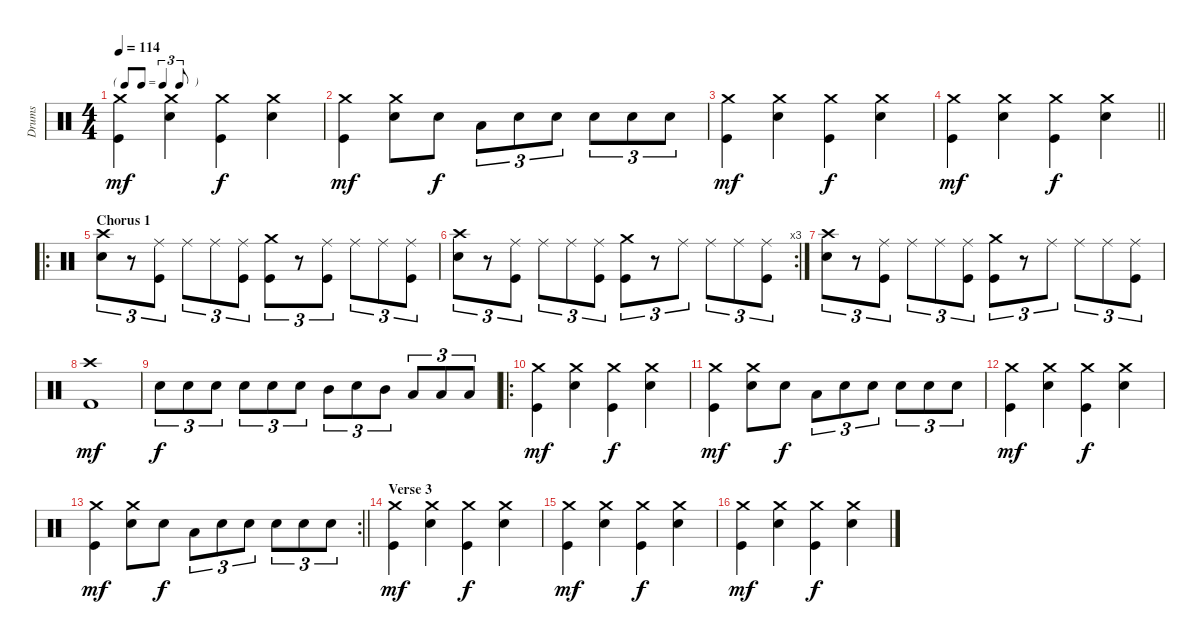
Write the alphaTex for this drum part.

\track ("Drums" "Drums") {instrument percussion}
\staff {score}
\articulation defaults
\ts (4 4)
\tf triplet8th
\tempo 114
\clef neutral
\ks c
("Crash medium (hit)" "Kick (hit)").4{dy mf beam merge} ("Crash medium (hit)" "Snare (hit) 2").4 ("Crash medium (hit)" "Kick (hit)").4{dy f beam merge} ("Crash medium (hit)" "Snare (hit) 2").4 |
("Crash medium (hit)" "Kick (hit)").4{dy mf beam merge} ("Crash medium (hit)" "Snare (hit) 2").8 "Snare (hit) 2".8{dy f} "Low Tom (hit)".8{tu (3 2)} "Snare (hit) 2".8{tu (3 2)} "Snare (hit) 2".8{tu (3 2)} "Snare (hit) 2".8{tu (3 2)} "Snare (hit) 2".8{tu (3 2)} "Snare (hit) 2".8{tu (3 2)} |
("Crash medium (hit)" "Kick (hit)").4{dy mf beam merge} ("Crash medium (hit)" "Snare (hit) 2").4 ("Crash medium (hit)" "Kick (hit)").4{dy f beam merge} ("Crash medium (hit)" "Snare (hit) 2").4 |
\barLineRight lightlight
("Crash medium (hit)" "Kick (hit)").4{dy mf beam merge} ("Crash medium (hit)" "Snare (hit) 2").4 ("Crash medium (hit)" "Kick (hit)").4{dy f beam merge} ("Crash medium (hit)" "Snare (hit) 2").4 |
\ro
\section ("" "Chorus 1")
("Crash high (hit)" "Snare (hit) 2").8{tu (3 2)} r.8{tu (3 2)} ("Ride (middle)" "Kick (hit)").8{tu (3 2)} "Ride (middle)".8{tu (3 2)} "Ride (middle)".8{tu (3 2)} ("Ride (middle)" "Kick (hit)").8{tu (3 2)} ("Crash medium (hit)" "Kick (hit)").8{tu (3 2)} r.8{tu (3 2)} ("Ride (middle)" "Kick (hit)").8{tu (3 2)} "Ride (middle)".8{tu (3 2)} "Ride (middle)".8{tu (3 2)} ("Ride (middle)" "Kick (hit)").8{tu (3 2)} |
\rc 3
("Crash high (hit)" "Snare (hit) 2").8{tu (3 2)} r.8{tu (3 2)} ("Ride (middle)" "Kick (hit)").8{tu (3 2)} "Ride (middle)".8{tu (3 2)} "Ride (middle)".8{tu (3 2)} ("Ride (middle)" "Kick (hit)").8{tu (3 2)} ("Crash medium (hit)" "Kick (hit)").8{tu (3 2)} r.8{tu (3 2)} "Ride (middle)".8{tu (3 2)} "Ride (middle)".8{tu (3 2)} "Ride (middle)".8{tu (3 2)} ("Ride (middle)" "Kick (hit)").8{tu (3 2)} |
("Crash high (hit)" "Snare (hit) 2").8{tu (3 2)} r.8{tu (3 2)} ("Ride (middle)" "Kick (hit)").8{tu (3 2)} "Ride (middle)".8{tu (3 2)} "Ride (middle)".8{tu (3 2)} ("Ride (middle)" "Kick (hit)").8{tu (3 2)} ("Crash medium (hit)" "Kick (hit)").8{tu (3 2)} r.8{tu (3 2)} "Ride (middle)".8{tu (3 2)} "Ride (middle)".8{tu (3 2)} "Ride (middle)".8{tu (3 2)} ("Ride (middle)" "Kick (hit)").8{tu (3 2)} |
("Crash high (hit)" "Kick (hit) 2").1{dy mf} |
"Snare (hit) 2".8{tu (3 2) dy f} "Snare (hit) 2".8{tu (3 2)} "Snare (hit) 2".8{tu (3 2)} "Snare (hit) 2".8{tu (3 2)} "Snare (hit) 2".8{tu (3 2)} "Snare (hit) 2".8{tu (3 2)} "Mid Tom (hit)".8{tu (3 2)} "Snare (hit) 2".8{tu (3 2)} "Mid Tom (hit)".8{tu (3 2)} "Low Tom (hit)".8{tu (3 2)} "Low Tom (hit)".8{tu (3 2)} "Low Tom (hit)".8{tu (3 2)} |
\ro
("Crash medium (hit)" "Kick (hit)").4{dy mf beam merge} ("Crash medium (hit)" "Snare (hit) 2").4 ("Crash medium (hit)" "Kick (hit)").4{dy f beam merge} ("Crash medium (hit)" "Snare (hit) 2").4 |
("Crash medium (hit)" "Kick (hit)").4{dy mf beam merge} ("Crash medium (hit)" "Snare (hit) 2").8 "Snare (hit) 2".8{dy f} "Low Tom (hit)".8{tu (3 2)} "Snare (hit) 2".8{tu (3 2)} "Snare (hit) 2".8{tu (3 2)} "Snare (hit) 2".8{tu (3 2)} "Snare (hit) 2".8{tu (3 2)} "Snare (hit) 2".8{tu (3 2)} |
("Crash medium (hit)" "Kick (hit)").4{dy mf beam merge} ("Crash medium (hit)" "Snare (hit) 2").4 ("Crash medium (hit)" "Kick (hit)").4{dy f beam merge} ("Crash medium (hit)" "Snare (hit) 2").4 |
\rc 2
\barLineRight lightlight
("Crash medium (hit)" "Kick (hit)").4{dy mf beam merge} ("Crash medium (hit)" "Snare (hit) 2").8 "Snare (hit) 2".8{dy f} "Low Tom (hit)".8{tu (3 2)} "Snare (hit) 2".8{tu (3 2)} "Snare (hit) 2".8{tu (3 2)} "Snare (hit) 2".8{tu (3 2)} "Snare (hit) 2".8{tu (3 2)} "Snare (hit) 2".8{tu (3 2)} |
\section ("" "Verse 3")
("Crash medium (hit)" "Kick (hit)").4{dy mf beam merge} ("Crash medium (hit)" "Snare (hit) 2").4 ("Crash medium (hit)" "Kick (hit)").4{dy f beam merge} ("Crash medium (hit)" "Snare (hit) 2").4 |
("Crash medium (hit)" "Kick (hit)").4{dy mf beam merge} ("Crash medium (hit)" "Snare (hit) 2").4 ("Crash medium (hit)" "Kick (hit)").4{dy f beam merge} ("Crash medium (hit)" "Snare (hit) 2").4 |
("Crash medium (hit)" "Kick (hit)").4{dy mf beam merge} ("Crash medium (hit)" "Snare (hit) 2").4 ("Crash medium (hit)" "Kick (hit)").4{dy f beam merge} ("Crash medium (hit)" "Snare (hit) 2").4
